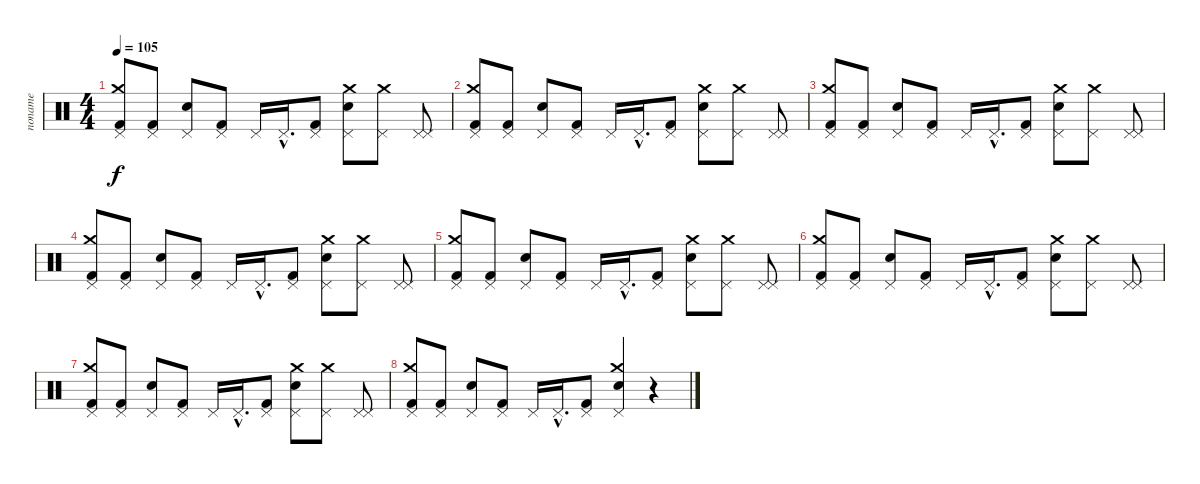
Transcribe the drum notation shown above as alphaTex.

\track ("noname" "noname") {instrument percussion}
\staff {score}
\articulation defaults
\ts (4 4)
\tempo 105
\clef neutral
\ks c
("Pedal Hi-Hat (hit)" "Crash medium (hit)" "Kick (hit) 2").8{dy f} ("Pedal Hi-Hat (hit)" "Kick (hit) 2").8 ("Pedal Hi-Hat (hit)" "Snare (hit) 2").8 ("Pedal Hi-Hat (hit)" "Kick (hit) 2").8 "Pedal Hi-Hat (hit)".16 "Pedal Hi-Hat (hit)"{hac}.16{d} ("Pedal Hi-Hat (hit)" "Kick (hit) 2").8 ("Pedal Hi-Hat (hit)" "Crash medium (hit)" "Snare (hit) 2").8 ("Pedal Hi-Hat (hit)" "Crash medium (hit)").8 ("Pedal Hi-Hat (hit)" "Pedal Hi-Hat (hit)").8 |
("Pedal Hi-Hat (hit)" "Crash medium (hit)" "Kick (hit) 2").8 ("Pedal Hi-Hat (hit)" "Kick (hit) 2").8 ("Pedal Hi-Hat (hit)" "Snare (hit) 2").8 ("Pedal Hi-Hat (hit)" "Kick (hit) 2").8 "Pedal Hi-Hat (hit)".16 "Pedal Hi-Hat (hit)"{hac}.16{d} ("Pedal Hi-Hat (hit)" "Kick (hit) 2").8 ("Pedal Hi-Hat (hit)" "Crash medium (hit)" "Snare (hit) 2").8 ("Pedal Hi-Hat (hit)" "Crash medium (hit)").8 ("Pedal Hi-Hat (hit)" "Pedal Hi-Hat (hit)").8 |
("Pedal Hi-Hat (hit)" "Crash medium (hit)" "Kick (hit) 2").8 ("Pedal Hi-Hat (hit)" "Kick (hit) 2").8 ("Pedal Hi-Hat (hit)" "Snare (hit) 2").8 ("Pedal Hi-Hat (hit)" "Kick (hit) 2").8 "Pedal Hi-Hat (hit)".16 "Pedal Hi-Hat (hit)"{hac}.16{d} ("Pedal Hi-Hat (hit)" "Kick (hit) 2").8 ("Pedal Hi-Hat (hit)" "Crash medium (hit)" "Snare (hit) 2").8 ("Pedal Hi-Hat (hit)" "Crash medium (hit)").8 ("Pedal Hi-Hat (hit)" "Pedal Hi-Hat (hit)").8 |
("Pedal Hi-Hat (hit)" "Crash medium (hit)" "Kick (hit) 2").8 ("Pedal Hi-Hat (hit)" "Kick (hit) 2").8 ("Pedal Hi-Hat (hit)" "Snare (hit) 2").8 ("Pedal Hi-Hat (hit)" "Kick (hit) 2").8 "Pedal Hi-Hat (hit)".16 "Pedal Hi-Hat (hit)"{hac}.16{d} ("Pedal Hi-Hat (hit)" "Kick (hit) 2").8 ("Pedal Hi-Hat (hit)" "Crash medium (hit)" "Snare (hit) 2").8 ("Pedal Hi-Hat (hit)" "Crash medium (hit)").8 ("Pedal Hi-Hat (hit)" "Pedal Hi-Hat (hit)").8 |
("Pedal Hi-Hat (hit)" "Crash medium (hit)" "Kick (hit) 2").8 ("Pedal Hi-Hat (hit)" "Kick (hit) 2").8 ("Pedal Hi-Hat (hit)" "Snare (hit) 2").8 ("Pedal Hi-Hat (hit)" "Kick (hit) 2").8 "Pedal Hi-Hat (hit)".16 "Pedal Hi-Hat (hit)"{hac}.16{d} ("Pedal Hi-Hat (hit)" "Kick (hit) 2").8 ("Pedal Hi-Hat (hit)" "Crash medium (hit)" "Snare (hit) 2").8 ("Pedal Hi-Hat (hit)" "Crash medium (hit)").8 ("Pedal Hi-Hat (hit)" "Pedal Hi-Hat (hit)").8 |
("Pedal Hi-Hat (hit)" "Crash medium (hit)" "Kick (hit) 2").8 ("Pedal Hi-Hat (hit)" "Kick (hit) 2").8 ("Pedal Hi-Hat (hit)" "Snare (hit) 2").8 ("Pedal Hi-Hat (hit)" "Kick (hit) 2").8 "Pedal Hi-Hat (hit)".16 "Pedal Hi-Hat (hit)"{hac}.16{d} ("Pedal Hi-Hat (hit)" "Kick (hit) 2").8 ("Pedal Hi-Hat (hit)" "Crash medium (hit)" "Snare (hit) 2").8 ("Pedal Hi-Hat (hit)" "Crash medium (hit)").8 ("Pedal Hi-Hat (hit)" "Pedal Hi-Hat (hit)").8 |
("Pedal Hi-Hat (hit)" "Crash medium (hit)" "Kick (hit) 2").8 ("Pedal Hi-Hat (hit)" "Kick (hit) 2").8 ("Pedal Hi-Hat (hit)" "Snare (hit) 2").8 ("Pedal Hi-Hat (hit)" "Kick (hit) 2").8 "Pedal Hi-Hat (hit)".16 "Pedal Hi-Hat (hit)"{hac}.16{d} ("Pedal Hi-Hat (hit)" "Kick (hit) 2").8 ("Pedal Hi-Hat (hit)" "Crash medium (hit)" "Snare (hit) 2").8 ("Pedal Hi-Hat (hit)" "Crash medium (hit)").8 ("Pedal Hi-Hat (hit)" "Pedal Hi-Hat (hit)").8 |
("Pedal Hi-Hat (hit)" "Crash medium (hit)" "Kick (hit) 2").8 ("Pedal Hi-Hat (hit)" "Kick (hit) 2").8 ("Pedal Hi-Hat (hit)" "Snare (hit) 2").8 ("Pedal Hi-Hat (hit)" "Kick (hit) 2").8 "Pedal Hi-Hat (hit)".16 "Pedal Hi-Hat (hit)"{hac}.16{d} ("Pedal Hi-Hat (hit)" "Kick (hit) 2").8 ("Pedal Hi-Hat (hit)" "Crash medium (hit)" "Snare (hit) 2").4 r.4
